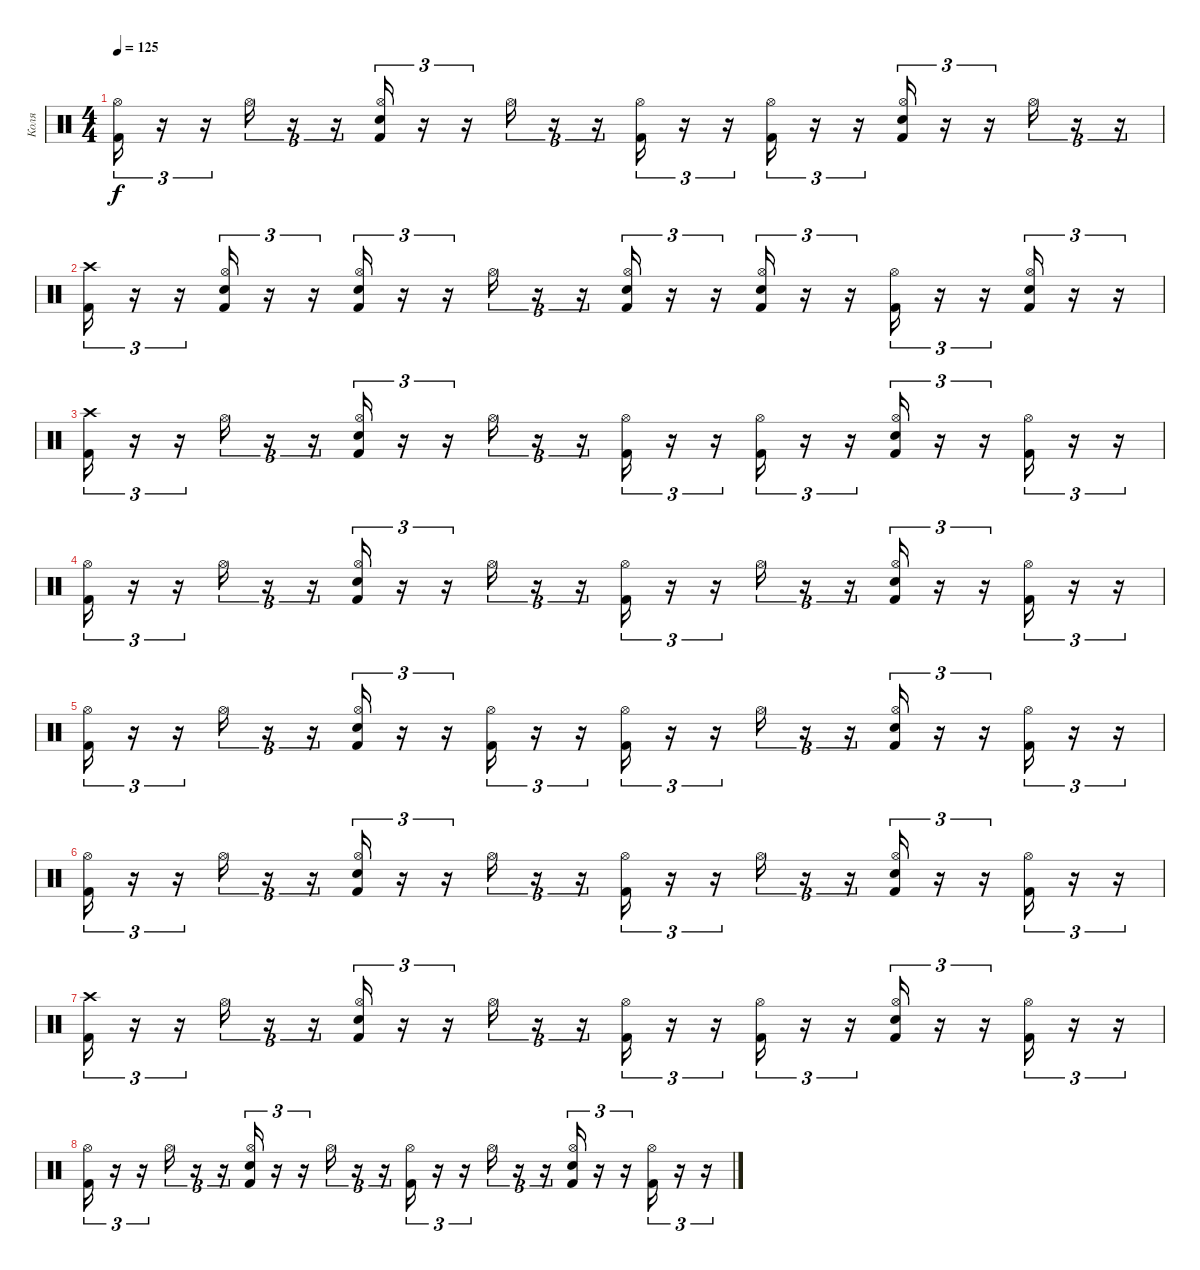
\track ("Коля" "Коля") {instrument percussion}
\staff {score}
\articulation defaults
\ts (4 4)
\tempo 125
\clef neutral
\ks c
("Kick (hit) 2" "Hi-Hat (open)").16{tu (3 2) dy f} r.16{tu (3 2)} r.16{tu (3 2)} "Hi-Hat (open)".16{tu (3 2)} r.16{tu (3 2)} r.16{tu (3 2)} ("Kick (hit) 2" "Snare (hit) 2" "Hi-Hat (open)").16{tu (3 2)} r.16{tu (3 2)} r.16{tu (3 2)} "Hi-Hat (open)".16{tu (3 2)} r.16{tu (3 2)} r.16{tu (3 2)} ("Kick (hit) 2" "Hi-Hat (open)").16{tu (3 2)} r.16{tu (3 2)} r.16{tu (3 2)} ("Kick (hit) 2" "Hi-Hat (open)").16{tu (3 2)} r.16{tu (3 2)} r.16{tu (3 2)} ("Kick (hit) 2" "Snare (hit) 2" "Hi-Hat (open)").16{tu (3 2)} r.16{tu (3 2)} r.16{tu (3 2)} "Hi-Hat (open)".16{tu (3 2)} r.16{tu (3 2)} r.16{tu (3 2)} |
("Kick (hit) 2" "Crash high (hit)").16{tu (3 2)} r.16{tu (3 2)} r.16{tu (3 2)} ("Kick (hit) 2" "Snare (hit) 2" "Hi-Hat (open)").16{tu (3 2)} r.16{tu (3 2)} r.16{tu (3 2)} ("Kick (hit) 2" "Snare (hit) 2" "Hi-Hat (open)").16{tu (3 2)} r.16{tu (3 2)} r.16{tu (3 2)} "Hi-Hat (open)".16{tu (3 2)} r.16{tu (3 2)} r.16{tu (3 2)} ("Kick (hit) 2" "Snare (hit) 2" "Hi-Hat (open)").16{tu (3 2)} r.16{tu (3 2)} r.16{tu (3 2)} ("Kick (hit) 2" "Snare (hit) 2" "Hi-Hat (open)").16{tu (3 2)} r.16{tu (3 2)} r.16{tu (3 2)} ("Kick (hit) 2" "Hi-Hat (open)").16{tu (3 2)} r.16{tu (3 2)} r.16{tu (3 2)} ("Kick (hit) 2" "Snare (hit) 2" "Hi-Hat (open)").16{tu (3 2)} r.16{tu (3 2)} r.16{tu (3 2)} |
("Kick (hit) 2" "Crash high (hit)").16{tu (3 2)} r.16{tu (3 2)} r.16{tu (3 2)} "Hi-Hat (open)".16{tu (3 2)} r.16{tu (3 2)} r.16{tu (3 2)} ("Kick (hit) 2" "Snare (hit) 2" "Hi-Hat (open)").16{tu (3 2)} r.16{tu (3 2)} r.16{tu (3 2)} "Hi-Hat (open)".16{tu (3 2)} r.16{tu (3 2)} r.16{tu (3 2)} ("Kick (hit) 2" "Hi-Hat (open)").16{tu (3 2)} r.16{tu (3 2)} r.16{tu (3 2)} ("Kick (hit) 2" "Hi-Hat (open)").16{tu (3 2)} r.16{tu (3 2)} r.16{tu (3 2)} ("Kick (hit) 2" "Snare (hit) 2" "Hi-Hat (open)").16{tu (3 2)} r.16{tu (3 2)} r.16{tu (3 2)} ("Kick (hit) 2" "Hi-Hat (open)").16{tu (3 2)} r.16{tu (3 2)} r.16{tu (3 2)} |
("Kick (hit) 2" "Hi-Hat (open)").16{tu (3 2)} r.16{tu (3 2)} r.16{tu (3 2)} "Hi-Hat (open)".16{tu (3 2)} r.16{tu (3 2)} r.16{tu (3 2)} ("Kick (hit) 2" "Snare (hit) 2" "Hi-Hat (open)").16{tu (3 2)} r.16{tu (3 2)} r.16{tu (3 2)} "Hi-Hat (open)".16{tu (3 2)} r.16{tu (3 2)} r.16{tu (3 2)} ("Kick (hit) 2" "Hi-Hat (open)").16{tu (3 2)} r.16{tu (3 2)} r.16{tu (3 2)} "Hi-Hat (open)".16{tu (3 2)} r.16{tu (3 2)} r.16{tu (3 2)} ("Kick (hit) 2" "Snare (hit) 2" "Hi-Hat (open)").16{tu (3 2)} r.16{tu (3 2)} r.16{tu (3 2)} ("Kick (hit) 2" "Hi-Hat (open)").16{tu (3 2)} r.16{tu (3 2)} r.16{tu (3 2)} |
("Kick (hit) 2" "Hi-Hat (open)").16{tu (3 2)} r.16{tu (3 2)} r.16{tu (3 2)} "Hi-Hat (open)".16{tu (3 2)} r.16{tu (3 2)} r.16{tu (3 2)} ("Kick (hit) 2" "Snare (hit) 2" "Hi-Hat (open)").16{tu (3 2)} r.16{tu (3 2)} r.16{tu (3 2)} ("Kick (hit) 2" "Hi-Hat (open)").16{tu (3 2)} r.16{tu (3 2)} r.16{tu (3 2)} ("Kick (hit) 2" "Hi-Hat (open)").16{tu (3 2)} r.16{tu (3 2)} r.16{tu (3 2)} "Hi-Hat (open)".16{tu (3 2)} r.16{tu (3 2)} r.16{tu (3 2)} ("Kick (hit) 2" "Snare (hit) 2" "Hi-Hat (open)").16{tu (3 2)} r.16{tu (3 2)} r.16{tu (3 2)} ("Kick (hit) 2" "Hi-Hat (open)").16{tu (3 2)} r.16{tu (3 2)} r.16{tu (3 2)} |
("Kick (hit) 2" "Hi-Hat (open)").16{tu (3 2)} r.16{tu (3 2)} r.16{tu (3 2)} "Hi-Hat (open)".16{tu (3 2)} r.16{tu (3 2)} r.16{tu (3 2)} ("Kick (hit) 2" "Snare (hit) 2" "Hi-Hat (open)").16{tu (3 2)} r.16{tu (3 2)} r.16{tu (3 2)} "Hi-Hat (open)".16{tu (3 2)} r.16{tu (3 2)} r.16{tu (3 2)} ("Kick (hit) 2" "Hi-Hat (open)").16{tu (3 2)} r.16{tu (3 2)} r.16{tu (3 2)} "Hi-Hat (open)".16{tu (3 2)} r.16{tu (3 2)} r.16{tu (3 2)} ("Kick (hit) 2" "Snare (hit) 2" "Hi-Hat (open)").16{tu (3 2)} r.16{tu (3 2)} r.16{tu (3 2)} ("Kick (hit) 2" "Hi-Hat (open)").16{tu (3 2)} r.16{tu (3 2)} r.16{tu (3 2)} |
("Kick (hit) 2" "Crash high (hit)").16{tu (3 2)} r.16{tu (3 2)} r.16{tu (3 2)} "Hi-Hat (open)".16{tu (3 2)} r.16{tu (3 2)} r.16{tu (3 2)} ("Kick (hit) 2" "Snare (hit) 2" "Hi-Hat (open)").16{tu (3 2)} r.16{tu (3 2)} r.16{tu (3 2)} "Hi-Hat (open)".16{tu (3 2)} r.16{tu (3 2)} r.16{tu (3 2)} ("Kick (hit) 2" "Hi-Hat (open)").16{tu (3 2)} r.16{tu (3 2)} r.16{tu (3 2)} ("Kick (hit) 2" "Hi-Hat (open)").16{tu (3 2)} r.16{tu (3 2)} r.16{tu (3 2)} ("Kick (hit) 2" "Snare (hit) 2" "Hi-Hat (open)").16{tu (3 2)} r.16{tu (3 2)} r.16{tu (3 2)} ("Kick (hit) 2" "Hi-Hat (open)").16{tu (3 2)} r.16{tu (3 2)} r.16{tu (3 2)} |
("Kick (hit) 2" "Hi-Hat (open)").16{tu (3 2)} r.16{tu (3 2)} r.16{tu (3 2)} "Hi-Hat (open)".16{tu (3 2)} r.16{tu (3 2)} r.16{tu (3 2)} ("Kick (hit) 2" "Snare (hit) 2" "Hi-Hat (open)").16{tu (3 2)} r.16{tu (3 2)} r.16{tu (3 2)} "Hi-Hat (open)".16{tu (3 2)} r.16{tu (3 2)} r.16{tu (3 2)} ("Kick (hit) 2" "Hi-Hat (open)").16{tu (3 2)} r.16{tu (3 2)} r.16{tu (3 2)} "Hi-Hat (open)".16{tu (3 2)} r.16{tu (3 2)} r.16{tu (3 2)} ("Kick (hit) 2" "Snare (hit) 2" "Hi-Hat (open)").16{tu (3 2)} r.16{tu (3 2)} r.16{tu (3 2)} ("Kick (hit) 2" "Hi-Hat (open)").16{tu (3 2)} r.16{tu (3 2)} r.16{tu (3 2)}
